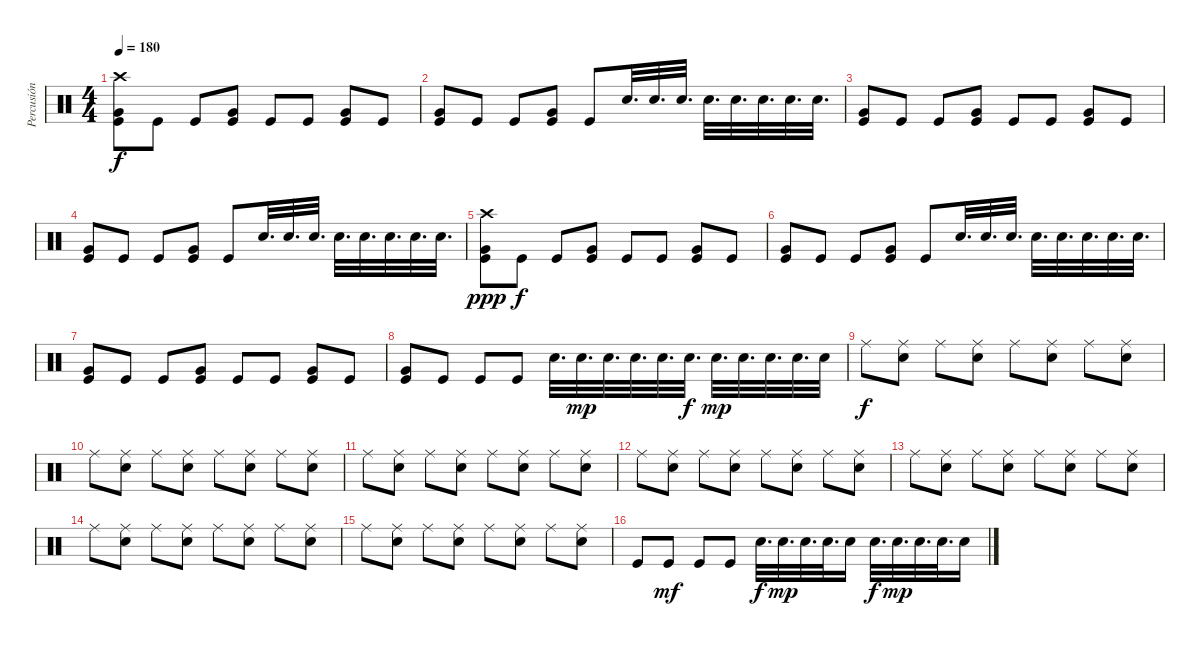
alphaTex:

\track ("Percusión" "Percusión") {instrument percussion}
\staff {score}
\articulation defaults
\ts (4 4)
\tempo 180
\clef neutral
\ks c
("Kick (hit)" "Very Low Tom (hit)" "Crash high (hit)").8{dy f} "Kick (hit)".8 "Kick (hit)".8 ("Kick (hit)" "Very Low Tom (hit)").8 "Kick (hit)".8 "Kick (hit)".8 ("Kick (hit)" "Very Low Tom (hit)").8 "Kick (hit)".8 |
("Kick (hit)" "Very Low Tom (hit)").8 "Kick (hit)".8 "Kick (hit)".8 ("Kick (hit)" "Very Low Tom (hit)").8 "Kick (hit)".8 "Snare (hit) 2".32{d} "Snare (hit) 2".32{d} "Snare (hit) 2".32{d} "Snare (hit) 2".32{d} "Snare (hit) 2".32{d} "Snare (hit) 2".32{d} "Snare (hit) 2".32{d} "Snare (hit) 2".32{d} |
("Kick (hit)" "Very Low Tom (hit)").8 "Kick (hit)".8 "Kick (hit)".8 ("Kick (hit)" "Very Low Tom (hit)").8 "Kick (hit)".8 "Kick (hit)".8 ("Kick (hit)" "Very Low Tom (hit)").8 "Kick (hit)".8 |
("Kick (hit)" "Very Low Tom (hit)").8 "Kick (hit)".8 "Kick (hit)".8 ("Kick (hit)" "Very Low Tom (hit)").8 "Kick (hit)".8 "Snare (hit) 2".32{d} "Snare (hit) 2".32{d} "Snare (hit) 2".32{d} "Snare (hit) 2".32{d} "Snare (hit) 2".32{d} "Snare (hit) 2".32{d} "Snare (hit) 2".32{d} "Snare (hit) 2".32{d} |
("Kick (hit)" "Very Low Tom (hit)" "Crash high (hit)").8{dy ppp} "Kick (hit)".8{dy f} "Kick (hit)".8 ("Kick (hit)" "Very Low Tom (hit)").8 "Kick (hit)".8 "Kick (hit)".8 ("Kick (hit)" "Very Low Tom (hit)").8 "Kick (hit)".8 |
("Kick (hit)" "Very Low Tom (hit)").8 "Kick (hit)".8 "Kick (hit)".8 ("Kick (hit)" "Very Low Tom (hit)").8 "Kick (hit)".8 "Snare (hit) 2".32{d} "Snare (hit) 2".32{d} "Snare (hit) 2".32{d} "Snare (hit) 2".32{d} "Snare (hit) 2".32{d} "Snare (hit) 2".32{d} "Snare (hit) 2".32{d} "Snare (hit) 2".32{d} |
("Kick (hit)" "Very Low Tom (hit)").8 "Kick (hit)".8 "Kick (hit)".8 ("Kick (hit)" "Very Low Tom (hit)").8 "Kick (hit)".8 "Kick (hit)".8 ("Kick (hit)" "Very Low Tom (hit)").8 "Kick (hit)".8 |
("Kick (hit)" "Very Low Tom (hit)").8 "Kick (hit)".8 "Kick (hit)".8 "Kick (hit)".8 "Snare (hit) 2".32{d} "Snare (hit) 2".32{d dy mp} "Snare (hit) 2".32{d} "Snare (hit) 2".32{d} "Snare (hit) 2".32{d} "Snare (hit) 2".32{d dy f} "Snare (hit) 2".32{d dy mp} "Snare (hit) 2".32{d} "Snare (hit) 2".32{d} "Snare (hit) 2".32{d} "Snare (hit) 2".32 |
"Ride (middle)".8{dy f} ("Ride (middle)" "Snare (hit) 2").8 "Ride (middle)".8 ("Ride (middle)" "Snare (hit) 2").8 "Ride (middle)".8 ("Ride (middle)" "Snare (hit) 2").8 "Ride (middle)".8 ("Ride (middle)" "Snare (hit) 2").8 |
"Ride (middle)".8 ("Ride (middle)" "Snare (hit) 2").8 "Ride (middle)".8 ("Ride (middle)" "Snare (hit) 2").8 "Ride (middle)".8 ("Ride (middle)" "Snare (hit) 2").8 "Ride (middle)".8 ("Ride (middle)" "Snare (hit) 2").8 |
"Ride (middle)".8 ("Ride (middle)" "Snare (hit) 2").8 "Ride (middle)".8 ("Ride (middle)" "Snare (hit) 2").8 "Ride (middle)".8 ("Ride (middle)" "Snare (hit) 2").8 "Ride (middle)".8 ("Ride (middle)" "Snare (hit) 2").8 |
"Ride (middle)".8 ("Ride (middle)" "Snare (hit) 2").8 "Ride (middle)".8 ("Ride (middle)" "Snare (hit) 2").8 "Ride (middle)".8 ("Ride (middle)" "Snare (hit) 2").8 "Ride (middle)".8 ("Ride (middle)" "Snare (hit) 2").8 |
"Ride (middle)".8 ("Ride (middle)" "Snare (hit) 2").8 "Ride (middle)".8 ("Ride (middle)" "Snare (hit) 2").8 "Ride (middle)".8 ("Ride (middle)" "Snare (hit) 2").8 "Ride (middle)".8 ("Ride (middle)" "Snare (hit) 2").8 |
"Ride (middle)".8 ("Ride (middle)" "Snare (hit) 2").8 "Ride (middle)".8 ("Ride (middle)" "Snare (hit) 2").8 "Ride (middle)".8 ("Ride (middle)" "Snare (hit) 2").8 "Ride (middle)".8 ("Ride (middle)" "Snare (hit) 2").8 |
"Ride (middle)".8 ("Ride (middle)" "Snare (hit) 2").8 "Ride (middle)".8 ("Ride (middle)" "Snare (hit) 2").8 "Ride (middle)".8 ("Ride (middle)" "Snare (hit) 2").8 "Ride (middle)".8 ("Ride (middle)" "Snare (hit) 2").8 |
"Kick (hit)".8 "Kick (hit)".8{dy mf} "Kick (hit)".8 "Kick (hit)".8 "Snare (hit) 2".32{d dy f} "Snare (hit) 2".32{d dy mp} "Snare (hit) 2".32{d} "Snare (hit) 2".32{d} "Snare (hit) 2".16 "Snare (hit) 2".32{d dy f} "Snare (hit) 2".32{d dy mp} "Snare (hit) 2".32{d} "Snare (hit) 2".32{d} "Snare (hit) 2".16
